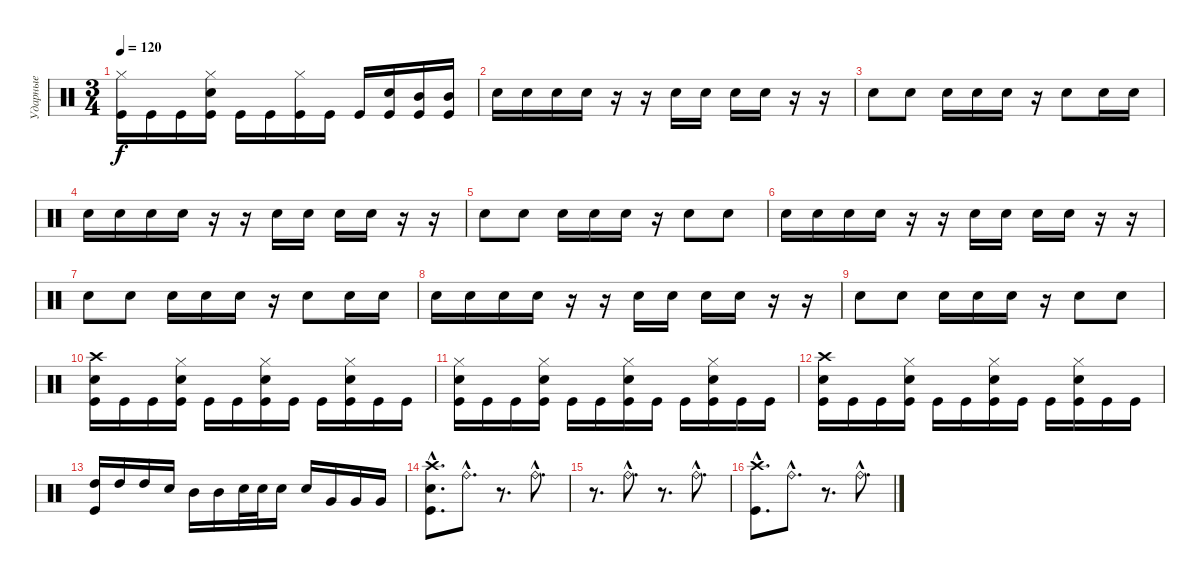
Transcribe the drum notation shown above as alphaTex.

\track ("Ударные" "Ударные") {instrument percussion}
\staff {score}
\articulation defaults
\ts (3 4)
\tempo 120
\clef neutral
\ks c
("Hi-Hat (closed)" "Kick (hit)").16{dy f} "Kick (hit)".16 "Kick (hit)".16 ("Hi-Hat (closed)" "Electric Snare (hit)" "Kick (hit)").16 "Kick (hit)".16 "Kick (hit)".16 ("Hi-Hat (closed)" "Kick (hit)").16 "Kick (hit)".16 "Kick (hit)".16 ("Electric Snare (hit)" "Kick (hit)").16 ("Mid Tom (hit)" "Kick (hit)").16 ("Mid Tom (hit)" "Kick (hit)").16 |
"Electric Snare (hit)".16 "Electric Snare (hit)".16 "Electric Snare (hit)".16 "Electric Snare (hit)".16 r.16 r.16 "Electric Snare (hit)".16 "Electric Snare (hit)".16 "Electric Snare (hit)".16 "Electric Snare (hit)".16 r.16 r.16 |
"Electric Snare (hit)".8 "Electric Snare (hit)".8 "Electric Snare (hit)".16 "Electric Snare (hit)".16 "Electric Snare (hit)".16 r.16 "Electric Snare (hit)".8 "Electric Snare (hit)".16 "Electric Snare (hit)".16 |
"Electric Snare (hit)".16 "Electric Snare (hit)".16 "Electric Snare (hit)".16 "Electric Snare (hit)".16 r.16 r.16 "Electric Snare (hit)".16 "Electric Snare (hit)".16 "Electric Snare (hit)".16 "Electric Snare (hit)".16 r.16 r.16 |
"Electric Snare (hit)".8 "Electric Snare (hit)".8 "Electric Snare (hit)".16 "Electric Snare (hit)".16 "Electric Snare (hit)".16 r.16 "Electric Snare (hit)".8 "Electric Snare (hit)".8 |
"Electric Snare (hit)".16 "Electric Snare (hit)".16 "Electric Snare (hit)".16 "Electric Snare (hit)".16 r.16 r.16 "Electric Snare (hit)".16 "Electric Snare (hit)".16 "Electric Snare (hit)".16 "Electric Snare (hit)".16 r.16 r.16 |
"Electric Snare (hit)".8 "Electric Snare (hit)".8 "Electric Snare (hit)".16 "Electric Snare (hit)".16 "Electric Snare (hit)".16 r.16 "Electric Snare (hit)".8 "Electric Snare (hit)".16 "Electric Snare (hit)".16 |
"Electric Snare (hit)".16 "Electric Snare (hit)".16 "Electric Snare (hit)".16 "Electric Snare (hit)".16 r.16 r.16 "Electric Snare (hit)".16 "Electric Snare (hit)".16 "Electric Snare (hit)".16 "Electric Snare (hit)".16 r.16 r.16 |
"Electric Snare (hit)".8 "Electric Snare (hit)".8 "Electric Snare (hit)".16 "Electric Snare (hit)".16 "Electric Snare (hit)".16 r.16 "Electric Snare (hit)".8 "Electric Snare (hit)".8 |
("Crash high (hit)" "Electric Snare (hit)" "Kick (hit)").16 "Kick (hit)".16 "Kick (hit)".16 ("Hi-Hat (closed)" "Electric Snare (hit)" "Kick (hit)").16 "Kick (hit)".16 "Kick (hit)".16 ("Hi-Hat (closed)" "Electric Snare (hit)" "Kick (hit)").16 "Kick (hit)".16 "Kick (hit)".16 ("Hi-Hat (closed)" "Electric Snare (hit)" "Kick (hit)").16 "Kick (hit)".16 "Kick (hit)".16 |
("Hi-Hat (closed)" "Electric Snare (hit)" "Kick (hit)").16 "Kick (hit)".16 "Kick (hit)".16 ("Hi-Hat (closed)" "Electric Snare (hit)" "Kick (hit)").16 "Kick (hit)".16 "Kick (hit)".16 ("Hi-Hat (closed)" "Electric Snare (hit)" "Kick (hit)").16 "Kick (hit)".16 "Kick (hit)".16 ("Hi-Hat (closed)" "Electric Snare (hit)" "Kick (hit)").16 "Kick (hit)".16 "Kick (hit)".16 |
("Crash high (hit)" "Electric Snare (hit)" "Kick (hit)").16 "Kick (hit)".16 "Kick (hit)".16 ("Hi-Hat (closed)" "Electric Snare (hit)" "Kick (hit)").16 "Kick (hit)".16 "Kick (hit)".16 ("Hi-Hat (closed)" "Electric Snare (hit)" "Kick (hit)").16 "Kick (hit)".16 "Kick (hit)".16 ("Hi-Hat (closed)" "Electric Snare (hit)" "Kick (hit)").16 "Kick (hit)".16 "Kick (hit)".16 |
("High Tom (hit)" "Kick (hit)").16 "High Tom (hit)".16 "High Tom (hit)".16 "Electric Snare (hit)".16 "Mid Tom (hit)".16 "Mid Tom (hit)".16 "Electric Snare (hit)".32 "Electric Snare (hit)".32 "Electric Snare (hit)".16 "Electric Snare (hit)".16 "Very Low Tom (hit)".16 "Very Low Tom (hit)".16 "Very Low Tom (hit)".16 |
("Crash high (hit)"{hac} "Electric Snare (hit)"{hac} "Kick (hit)"{hac}).8{d} "Ride (bell)"{hac}.8{d} r.8{d} "Ride (bell)"{hac}.8{d} |
r.8{d} "Ride (bell)"{hac}.8{d} r.8{d} "Ride (bell)"{hac}.8{d} |
("Crash high (hit)"{hac} "Kick (hit)"{hac}).8{d} "Ride (bell)"{hac}.8{d} r.8{d} "Ride (bell)"{hac}.8{d}
